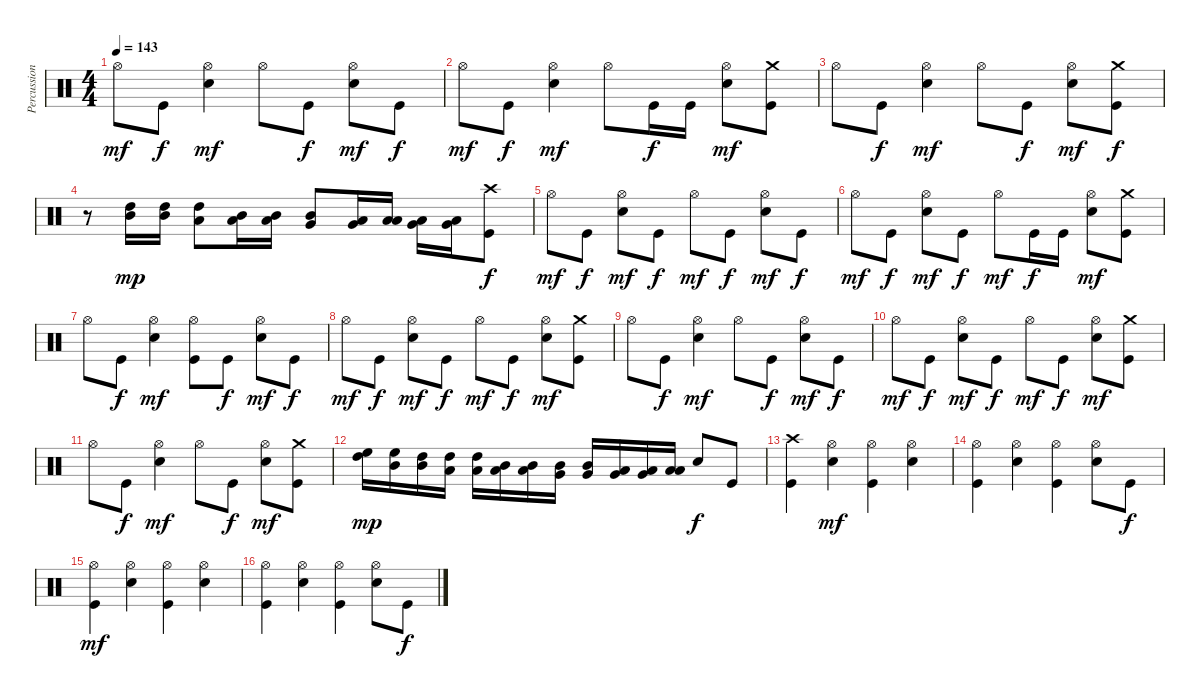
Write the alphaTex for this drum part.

\track ("Percussions" "Percussion") {instrument percussion}
\staff {score}
\articulation defaults
\ts (4 4)
\tempo 143
\clef neutral
\ks c "Hi-Hat (open)".8{dy mf} "Kick (hit)".8{dy f}
("Electric Snare (hit)" "Hi-Hat (open)").4{dy mf} "Hi-Hat (open)".8 "Kick (hit)".8{dy f} ("Electric Snare (hit)" "Hi-Hat (open)").8{dy mf} "Kick (hit)".8{dy f} |
"Hi-Hat (open)".8{dy mf} "Kick (hit)".8{dy f} ("Electric Snare (hit)" "Hi-Hat (open)").4{dy mf} "Hi-Hat (open)".8 "Kick (hit)".16{dy f} "Kick (hit)".16 ("Electric Snare (hit)" "Hi-Hat (open)").8{dy mf} ("Kick (hit)" "Crash medium (hit)").8 |
"Hi-Hat (open)".8 "Kick (hit)".8{dy f} ("Electric Snare (hit)" "Hi-Hat (open)").4{dy mf} "Hi-Hat (open)".8 "Kick (hit)".8{dy f} ("Electric Snare (hit)" "Hi-Hat (open)").8{dy mf} ("Kick (hit)" "Crash medium (hit)").8{dy f} |
r.8 ("Mid Tom (hit)" "High Tom (hit)").16{dy mp} ("Mid Tom (hit)" "High Tom (hit)").16 ("Low Tom (hit)" "High Tom (hit)").8 ("Low Tom (hit)" "Mid Tom (hit)").16 ("Low Tom (hit)" "Mid Tom (hit)").16 ("Very Low Tom (hit)" "Mid Tom (hit)").8 ("Very Low Tom (hit)" "Low Tom (hit)").16 ("Low Floor Tom (hit)" "Low Tom (hit)").16 ("Low Floor Tom (hit)" "Very Low Tom (hit)").16 ("Low Floor Tom (hit)" "Very Low Tom (hit)").16 ("Kick (hit)" "Crash high (hit)").8{dy f} |
"Hi-Hat (open)".8{dy mf} "Kick (hit)".8{dy f} ("Electric Snare (hit)" "Hi-Hat (open)").8{dy mf} "Kick (hit)".8{dy f} "Hi-Hat (open)".8{dy mf} "Kick (hit)".8{dy f} ("Electric Snare (hit)" "Hi-Hat (open)").8{dy mf} "Kick (hit)".8{dy f} |
"Hi-Hat (open)".8{dy mf} "Kick (hit)".8{dy f} ("Electric Snare (hit)" "Hi-Hat (open)").8{dy mf} "Kick (hit)".8{dy f} "Hi-Hat (open)".8{dy mf} "Kick (hit)".16{dy f} "Kick (hit)".16 ("Electric Snare (hit)" "Hi-Hat (open)").8{dy mf} ("Kick (hit)" "Crash medium (hit)").8 |
"Hi-Hat (open)".8 "Kick (hit)".8{dy f} ("Electric Snare (hit)" "Hi-Hat (open)").4{dy mf} ("Kick (hit)" "Hi-Hat (open)").8 "Kick (hit)".8{dy f} ("Electric Snare (hit)" "Hi-Hat (open)").8{dy mf} "Kick (hit)".8{dy f} |
"Hi-Hat (open)".8{dy mf} "Kick (hit)".8{dy f} ("Electric Snare (hit)" "Hi-Hat (open)").8{dy mf} "Kick (hit)".8{dy f} "Hi-Hat (open)".8{dy mf} "Kick (hit)".8{dy f} ("Electric Snare (hit)" "Hi-Hat (open)").8{dy mf} ("Kick (hit)" "Crash medium (hit)").8 |
"Hi-Hat (open)".8 "Kick (hit)".8{dy f} ("Electric Snare (hit)" "Hi-Hat (open)").4{dy mf} "Hi-Hat (open)".8 "Kick (hit)".8{dy f} ("Electric Snare (hit)" "Hi-Hat (open)").8{dy mf} "Kick (hit)".8{dy f} |
"Hi-Hat (open)".8{dy mf} "Kick (hit)".8{dy f} ("Electric Snare (hit)" "Hi-Hat (open)").8{dy mf} "Kick (hit)".8{dy f} "Hi-Hat (open)".8{dy mf} "Kick (hit)".8{dy f} ("Electric Snare (hit)" "Hi-Hat (open)").8{dy mf} ("Kick (hit)" "Crash medium (hit)").8 |
"Hi-Hat (open)".8 "Kick (hit)".8{dy f} ("Electric Snare (hit)" "Hi-Hat (open)").4{dy mf} "Hi-Hat (open)".8 "Kick (hit)".8{dy f} ("Electric Snare (hit)" "Hi-Hat (open)").8{dy mf} ("Kick (hit)" "Crash medium (hit)").8 |
("High Tom (hit)" "High Floor Tom (hit)").16{dy mp} ("Mid Tom (hit)" "High Floor Tom (hit)").16 ("Mid Tom (hit)" "High Tom (hit)").16 ("Low Tom (hit)" "High Tom (hit)").16 ("Low Tom (hit)" "High Tom (hit)").16 ("Low Tom (hit)" "Mid Tom (hit)").16 ("Low Tom (hit)" "Mid Tom (hit)").16 ("Very Low Tom (hit)" "Mid Tom (hit)").16 ("Very Low Tom (hit)" "Mid Tom (hit)").16 ("Very Low Tom (hit)" "Low Tom (hit)").16 ("Very Low Tom (hit)" "Low Tom (hit)").16 ("Low Floor Tom (hit)" "Low Tom (hit)").16 "Electric Snare (hit)".8{dy f} "Kick (hit)".8 |
("Kick (hit)" "Crash high (hit)").4 ("Electric Snare (hit)" "Hi-Hat (open)").4{dy mf} ("Kick (hit)" "Hi-Hat (open)").4 ("Electric Snare (hit)" "Hi-Hat (open)").4 |
("Kick (hit)" "Hi-Hat (open)").4 ("Electric Snare (hit)" "Hi-Hat (open)").4 ("Kick (hit)" "Hi-Hat (open)").4 ("Electric Snare (hit)" "Hi-Hat (open)").8 "Kick (hit)".8{dy f} |
("Kick (hit)" "Hi-Hat (open)").4{dy mf} ("Electric Snare (hit)" "Hi-Hat (open)").4 ("Kick (hit)" "Hi-Hat (open)").4 ("Electric Snare (hit)" "Hi-Hat (open)").4 |
("Kick (hit)" "Hi-Hat (open)").4 ("Electric Snare (hit)" "Hi-Hat (open)").4 ("Kick (hit)" "Hi-Hat (open)").4 ("Electric Snare (hit)" "Hi-Hat (open)").8 "Kick (hit)".8{dy f}
